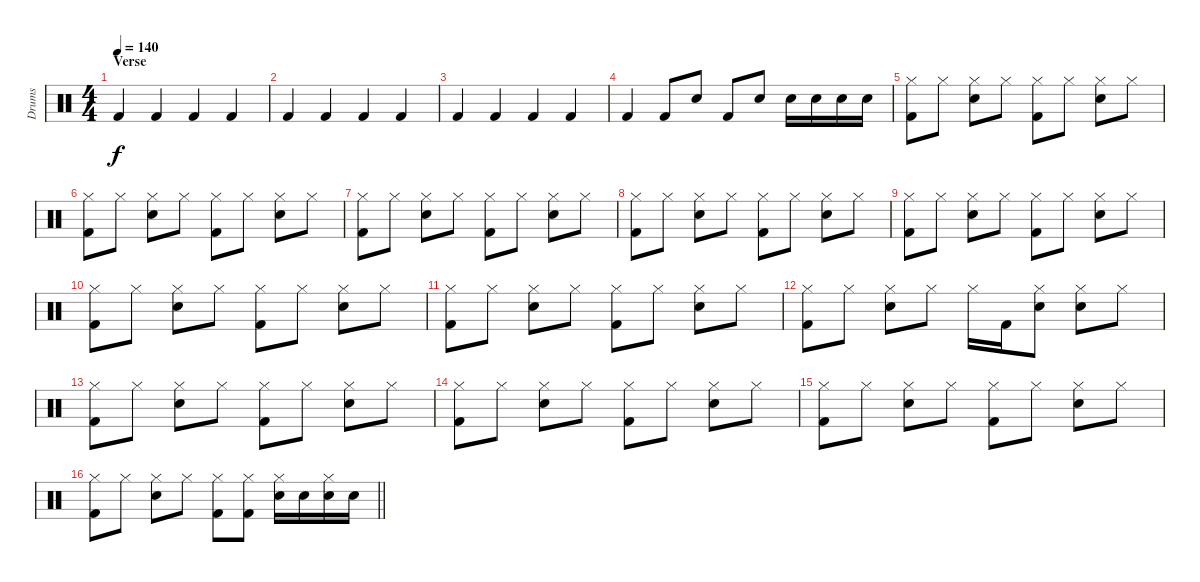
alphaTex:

\track ("Drums" "Drums") {instrument percussion}
\staff {score}
\articulation defaults
\ts (4 4)
\section ("" "Verse")
\tempo 140
\clef neutral
\ks c "Kick (hit) 2".4{dy f} "Kick (hit) 2".4 "Kick (hit) 2".4 "Kick (hit) 2".4
|
"Kick (hit) 2".4 "Kick (hit) 2".4 "Kick (hit) 2".4 "Kick (hit) 2".4 |
"Kick (hit) 2".4 "Kick (hit) 2".4 "Kick (hit) 2".4 "Kick (hit) 2".4 |
"Kick (hit) 2".4 "Kick (hit) 2".8 "Snare (hit) 2".8 "Kick (hit) 2".8 "Snare (hit) 2".8 "Snare (hit) 2".16 "Snare (hit) 2".16 "Snare (hit) 2".16 "Snare (hit) 2".16 |
("Hi-Hat (closed)" "Kick (hit) 2").8 "Hi-Hat (closed)".8 ("Hi-Hat (closed)" "Snare (hit) 2").8 "Hi-Hat (closed)".8 ("Hi-Hat (closed)" "Kick (hit) 2").8 "Hi-Hat (closed)".8 ("Hi-Hat (closed)" "Snare (hit) 2").8 "Hi-Hat (closed)".8 |
("Hi-Hat (closed)" "Kick (hit) 2").8 "Hi-Hat (closed)".8 ("Hi-Hat (closed)" "Snare (hit) 2").8 "Hi-Hat (closed)".8 ("Hi-Hat (closed)" "Kick (hit) 2").8 "Hi-Hat (closed)".8 ("Hi-Hat (closed)" "Snare (hit) 2").8 "Hi-Hat (closed)".8 |
("Hi-Hat (closed)" "Kick (hit) 2").8 "Hi-Hat (closed)".8 ("Hi-Hat (closed)" "Snare (hit) 2").8 "Hi-Hat (closed)".8 ("Hi-Hat (closed)" "Kick (hit) 2").8 "Hi-Hat (closed)".8 ("Hi-Hat (closed)" "Snare (hit) 2").8 "Hi-Hat (closed)".8 |
("Hi-Hat (closed)" "Kick (hit) 2").8 "Hi-Hat (closed)".8 ("Hi-Hat (closed)" "Snare (hit) 2").8 "Hi-Hat (closed)".8 ("Hi-Hat (closed)" "Kick (hit) 2").8 "Hi-Hat (closed)".8 ("Hi-Hat (closed)" "Snare (hit) 2").8 "Hi-Hat (closed)".8 |
("Hi-Hat (closed)" "Kick (hit) 2").8 "Hi-Hat (closed)".8 ("Hi-Hat (closed)" "Snare (hit) 2").8 "Hi-Hat (closed)".8 ("Hi-Hat (closed)" "Kick (hit) 2").8 "Hi-Hat (closed)".8 ("Hi-Hat (closed)" "Snare (hit) 2").8 "Hi-Hat (closed)".8 |
("Hi-Hat (closed)" "Kick (hit) 2").8 "Hi-Hat (closed)".8 ("Hi-Hat (closed)" "Snare (hit) 2").8 "Hi-Hat (closed)".8 ("Hi-Hat (closed)" "Kick (hit) 2").8 "Hi-Hat (closed)".8 ("Hi-Hat (closed)" "Snare (hit) 2").8 "Hi-Hat (closed)".8 |
("Hi-Hat (closed)" "Kick (hit) 2").8 "Hi-Hat (closed)".8 ("Hi-Hat (closed)" "Snare (hit) 2").8 "Hi-Hat (closed)".8 ("Hi-Hat (closed)" "Kick (hit) 2").8 "Hi-Hat (closed)".8 ("Hi-Hat (closed)" "Snare (hit) 2").8 "Hi-Hat (closed)".8 |
("Hi-Hat (closed)" "Kick (hit) 2").8 "Hi-Hat (closed)".8 ("Hi-Hat (closed)" "Snare (hit) 2").8 "Hi-Hat (closed)".8 "Hi-Hat (closed)".16 "Kick (hit) 2".16 ("Hi-Hat (closed)" "Snare (hit) 2").8 ("Hi-Hat (closed)" "Snare (hit) 2").8 "Hi-Hat (closed)".8 |
("Hi-Hat (closed)" "Kick (hit) 2").8 "Hi-Hat (closed)".8 ("Hi-Hat (closed)" "Snare (hit) 2").8 "Hi-Hat (closed)".8 ("Hi-Hat (closed)" "Kick (hit) 2").8 "Hi-Hat (closed)".8 ("Hi-Hat (closed)" "Snare (hit) 2").8 "Hi-Hat (closed)".8 |
("Hi-Hat (closed)" "Kick (hit) 2").8 "Hi-Hat (closed)".8 ("Hi-Hat (closed)" "Snare (hit) 2").8 "Hi-Hat (closed)".8 ("Hi-Hat (closed)" "Kick (hit) 2").8 "Hi-Hat (closed)".8 ("Hi-Hat (closed)" "Snare (hit) 2").8 "Hi-Hat (closed)".8 |
("Hi-Hat (closed)" "Kick (hit) 2").8 "Hi-Hat (closed)".8 ("Hi-Hat (closed)" "Snare (hit) 2").8 "Hi-Hat (closed)".8 ("Hi-Hat (closed)" "Kick (hit) 2").8 "Hi-Hat (closed)".8 ("Hi-Hat (closed)" "Snare (hit) 2").8 "Hi-Hat (closed)".8 |
\barLineRight lightlight
("Hi-Hat (closed)" "Kick (hit) 2").8 "Hi-Hat (closed)".8 ("Hi-Hat (closed)" "Snare (hit) 2").8 "Hi-Hat (closed)".8 ("Hi-Hat (closed)" "Kick (hit) 2").8 ("Hi-Hat (closed)" "Kick (hit) 2").8 ("Hi-Hat (closed)" "Snare (hit) 2").16 "Snare (hit) 2".16 ("Hi-Hat (closed)" "Snare (hit) 2").16 "Snare (hit) 2".16
